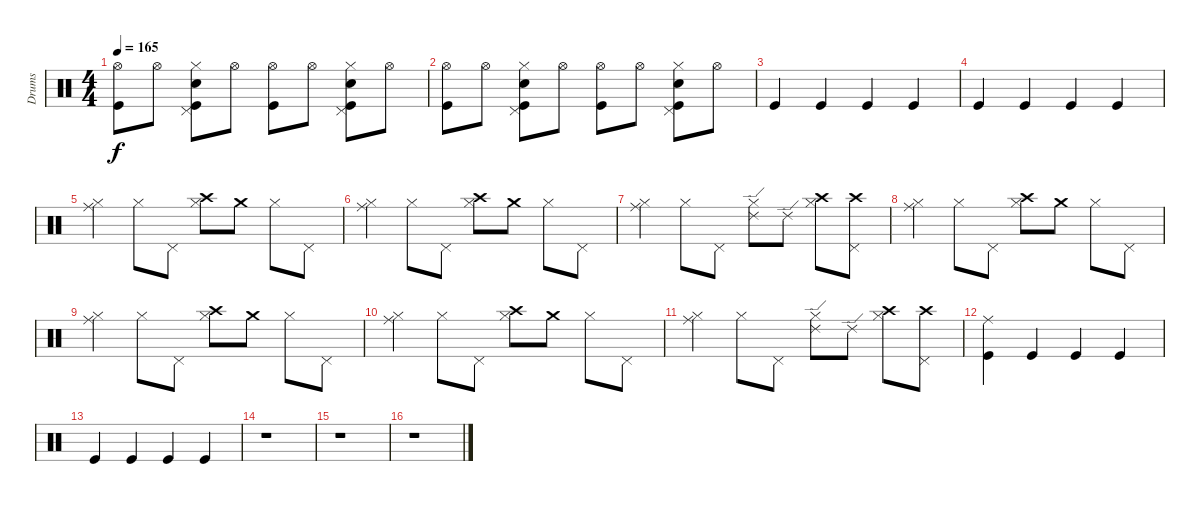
\track ("Drums" "Drums") {instrument percussion}
\staff {score}
\articulation defaults
\ts (4 4)
\tempo 165
\clef neutral
\ks c
("Hi-Hat (open)" "Kick (hit)").8{dy f} "Hi-Hat (open)".8 ("Hi-Hat (closed)" "Pedal Hi-Hat (hit)" "Snare (hit) 2" "Kick (hit)").8 "Hi-Hat (open)".8 ("Hi-Hat (open)" "Kick (hit)").8 "Hi-Hat (open)".8 ("Hi-Hat (closed)" "Pedal Hi-Hat (hit)" "Snare (hit) 2" "Kick (hit)").8 "Hi-Hat (open)".8 |
("Hi-Hat (open)" "Kick (hit)").8 "Hi-Hat (open)".8 ("Hi-Hat (closed)" "Pedal Hi-Hat (hit)" "Snare (hit) 2" "Kick (hit)").8 "Hi-Hat (open)".8 ("Hi-Hat (open)" "Kick (hit)").8 "Hi-Hat (open)".8 ("Hi-Hat (closed)" "Pedal Hi-Hat (hit)" "Snare (hit) 2" "Kick (hit)").8 "Hi-Hat (open)".8 |
"Kick (hit)".4 "Kick (hit)".4 "Kick (hit)".4 "Kick (hit)".4 |
"Kick (hit)".4 "Kick (hit)".4 "Kick (hit)".4 "Kick (hit)".4 |
("Hi-Hat (closed)" "Ride (middle)").4 "Hi-Hat (closed)".8 "Pedal Hi-Hat (hit)".8 ("Hi-Hat (closed)" "Crash high (hit)").8 "Crash medium (hit)".8 "Hi-Hat (closed)".8 "Pedal Hi-Hat (hit)".8 |
("Hi-Hat (closed)" "Ride (middle)").4 "Hi-Hat (closed)".8 "Pedal Hi-Hat (hit)".8 ("Hi-Hat (closed)" "Crash high (hit)").8 "Crash medium (hit)".8 "Hi-Hat (closed)".8 "Pedal Hi-Hat (hit)".8 |
("Hi-Hat (closed)" "Ride (middle)").4 "Hi-Hat (closed)".8 "Pedal Hi-Hat (hit)".8 ("Hi-Hat (closed)" "Ride (edge) 2").8 "Ride (edge) 2".8 ("Hi-Hat (closed)" "Crash high (hit)").8 ("Pedal Hi-Hat (hit)" "Crash high (hit)").8 |
("Hi-Hat (closed)" "Ride (middle)").4 "Hi-Hat (closed)".8 "Pedal Hi-Hat (hit)".8 ("Hi-Hat (closed)" "Crash high (hit)").8 "Crash medium (hit)".8 "Hi-Hat (closed)".8 "Pedal Hi-Hat (hit)".8 |
("Hi-Hat (closed)" "Ride (middle)").4 "Hi-Hat (closed)".8 "Pedal Hi-Hat (hit)".8 ("Hi-Hat (closed)" "Crash high (hit)").8 "Crash medium (hit)".8 "Hi-Hat (closed)".8 "Pedal Hi-Hat (hit)".8 |
("Hi-Hat (closed)" "Ride (middle)").4 "Hi-Hat (closed)".8 "Pedal Hi-Hat (hit)".8 ("Hi-Hat (closed)" "Crash high (hit)").8 "Crash medium (hit)".8 "Hi-Hat (closed)".8 "Pedal Hi-Hat (hit)".8 |
("Hi-Hat (closed)" "Ride (middle)").4 "Hi-Hat (closed)".8 "Pedal Hi-Hat (hit)".8 ("Hi-Hat (closed)" "Ride (edge) 2").8 "Ride (edge) 2".8 ("Hi-Hat (closed)" "Crash high (hit)").8 ("Pedal Hi-Hat (hit)" "Crash high (hit)").8 |
("Ride (middle)" "Kick (hit)").4 "Kick (hit)".4 "Kick (hit)".4 "Kick (hit)".4 |
"Kick (hit)".4 "Kick (hit)".4 "Kick (hit)".4 "Kick (hit)".4 |
r.1 |
r.1 |
r.1
